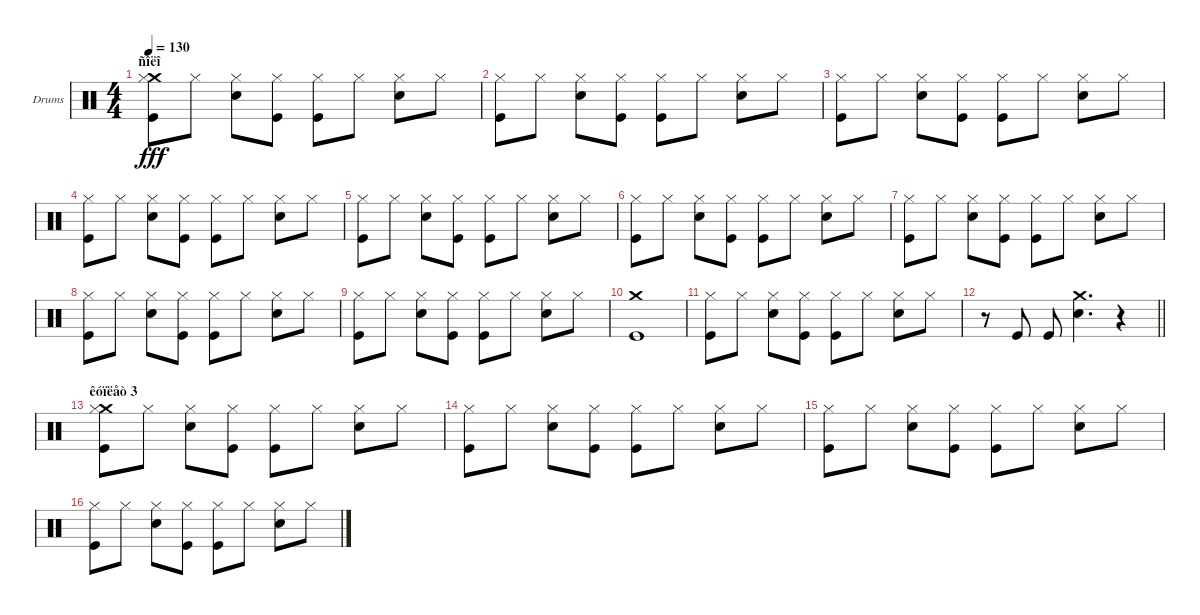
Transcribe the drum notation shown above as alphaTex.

\bracketExtendMode groupsimilarinstruments
\firstSystemTrackNameOrientation horizontal
\otherSystemsTrackNameOrientation horizontal
\track ("Drumkit" "Drums") {instrument percussion}
\staff {score}
\articulation defaults
\ts (4 4)
\section ("" "ñîëî ")
\tempo 130
\clef neutral
\ks c
("Crash medium (hit)" "Hi-Hat (closed)" "Kick (hit)").8{dy fff} "Hi-Hat (closed)".8 ("Hi-Hat (closed)" "Snare (hit) 2").8 ("Hi-Hat (closed)" "Kick (hit)").8 ("Hi-Hat (closed)" "Kick (hit)").8 "Hi-Hat (closed)".8 ("Hi-Hat (closed)" "Snare (hit) 2").8 "Hi-Hat (closed)".8 |
("Hi-Hat (closed)" "Kick (hit)").8 "Hi-Hat (closed)".8 ("Hi-Hat (closed)" "Snare (hit) 2").8 ("Hi-Hat (closed)" "Kick (hit)").8 ("Hi-Hat (closed)" "Kick (hit)").8 "Hi-Hat (closed)".8 ("Hi-Hat (closed)" "Snare (hit) 2").8 "Hi-Hat (closed)".8 |
("Hi-Hat (closed)" "Kick (hit)").8 "Hi-Hat (closed)".8 ("Hi-Hat (closed)" "Snare (hit) 2").8 ("Hi-Hat (closed)" "Kick (hit)").8 ("Hi-Hat (closed)" "Kick (hit)").8 "Hi-Hat (closed)".8 ("Hi-Hat (closed)" "Snare (hit) 2").8 "Hi-Hat (closed)".8 |
("Hi-Hat (closed)" "Kick (hit)").8 "Hi-Hat (closed)".8 ("Hi-Hat (closed)" "Snare (hit) 2").8 ("Hi-Hat (closed)" "Kick (hit)").8 ("Hi-Hat (closed)" "Kick (hit)").8 "Hi-Hat (closed)".8 ("Hi-Hat (closed)" "Snare (hit) 2").8 "Hi-Hat (closed)".8 |
("Hi-Hat (closed)" "Kick (hit)").8 "Hi-Hat (closed)".8 ("Hi-Hat (closed)" "Snare (hit) 2").8 ("Hi-Hat (closed)" "Kick (hit)").8 ("Hi-Hat (closed)" "Kick (hit)").8 "Hi-Hat (closed)".8 ("Hi-Hat (closed)" "Snare (hit) 2").8 "Hi-Hat (closed)".8 |
("Hi-Hat (closed)" "Kick (hit)").8 "Hi-Hat (closed)".8 ("Hi-Hat (closed)" "Snare (hit) 2").8 ("Hi-Hat (closed)" "Kick (hit)").8 ("Hi-Hat (closed)" "Kick (hit)").8 "Hi-Hat (closed)".8 ("Hi-Hat (closed)" "Snare (hit) 2").8 "Hi-Hat (closed)".8 |
("Hi-Hat (closed)" "Kick (hit)").8 "Hi-Hat (closed)".8 ("Hi-Hat (closed)" "Snare (hit) 2").8 ("Hi-Hat (closed)" "Kick (hit)").8 ("Hi-Hat (closed)" "Kick (hit)").8 "Hi-Hat (closed)".8 ("Hi-Hat (closed)" "Snare (hit) 2").8 "Hi-Hat (closed)".8 |
("Hi-Hat (closed)" "Kick (hit)").8 "Hi-Hat (closed)".8 ("Hi-Hat (closed)" "Snare (hit) 2").8 ("Hi-Hat (closed)" "Kick (hit)").8 ("Hi-Hat (closed)" "Kick (hit)").8 "Hi-Hat (closed)".8 ("Hi-Hat (closed)" "Snare (hit) 2").8 "Hi-Hat (closed)".8 |
("Hi-Hat (closed)" "Kick (hit)").8 "Hi-Hat (closed)".8 ("Hi-Hat (closed)" "Snare (hit) 2").8 ("Hi-Hat (closed)" "Kick (hit)").8 ("Hi-Hat (closed)" "Kick (hit)").8 "Hi-Hat (closed)".8 ("Hi-Hat (closed)" "Snare (hit) 2").8 "Hi-Hat (closed)".8 |
("Crash medium (hit)" "Kick (hit)").1 |
("Hi-Hat (closed)" "Kick (hit)").8 "Hi-Hat (closed)".8 ("Hi-Hat (closed)" "Snare (hit) 2").8 ("Hi-Hat (closed)" "Kick (hit)").8 ("Hi-Hat (closed)" "Kick (hit)").8 "Hi-Hat (closed)".8 ("Hi-Hat (closed)" "Snare (hit) 2").8 "Hi-Hat (closed)".8 |
\barLineRight lightlight
r.8 "Kick (hit)".8 "Kick (hit)".8 ("Crash medium (hit)" "Snare (hit) 2").4{d} r.4 |
\section ("" "êóïëåò 3")
("Crash medium (hit)" "Hi-Hat (closed)" "Kick (hit)").8 "Hi-Hat (closed)".8 ("Hi-Hat (closed)" "Snare (hit) 2").8 ("Hi-Hat (closed)" "Kick (hit)").8 ("Hi-Hat (closed)" "Kick (hit)").8 "Hi-Hat (closed)".8 ("Hi-Hat (closed)" "Snare (hit) 2").8 "Hi-Hat (closed)".8 |
("Hi-Hat (closed)" "Kick (hit)").8 "Hi-Hat (closed)".8 ("Hi-Hat (closed)" "Snare (hit) 2").8 ("Hi-Hat (closed)" "Kick (hit)").8 ("Hi-Hat (closed)" "Kick (hit)").8 "Hi-Hat (closed)".8 ("Hi-Hat (closed)" "Snare (hit) 2").8 "Hi-Hat (closed)".8 |
("Hi-Hat (closed)" "Kick (hit)").8 "Hi-Hat (closed)".8 ("Hi-Hat (closed)" "Snare (hit) 2").8 ("Hi-Hat (closed)" "Kick (hit)").8 ("Hi-Hat (closed)" "Kick (hit)").8 "Hi-Hat (closed)".8 ("Hi-Hat (closed)" "Snare (hit) 2").8 "Hi-Hat (closed)".8 |
("Hi-Hat (closed)" "Kick (hit)").8 "Hi-Hat (closed)".8 ("Hi-Hat (closed)" "Snare (hit) 2").8 ("Hi-Hat (closed)" "Kick (hit)").8 ("Hi-Hat (closed)" "Kick (hit)").8 "Hi-Hat (closed)".8 ("Hi-Hat (closed)" "Snare (hit) 2").8 "Hi-Hat (closed)".8
